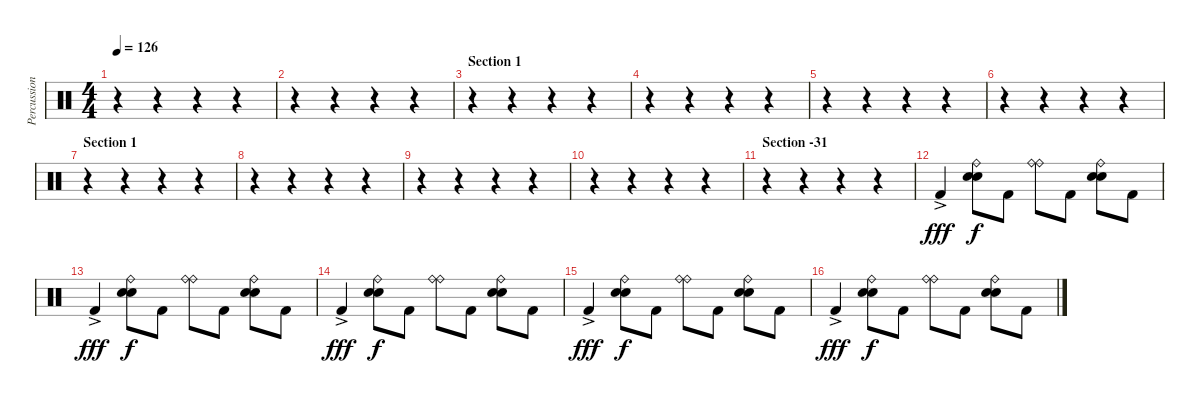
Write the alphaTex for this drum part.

\track ("Percussion" "Percussion") {instrument percussion}
\staff {score}
\articulation defaults
\ts (4 4)
\tempo 126
\clef neutral
\ks c
r.4{dy fff} r.4 r.4 r.4 |
r.4 r.4 r.4 r.4 |
\section ("" "Section 1")
r.4 r.4 r.4 r.4 |
r.4 r.4 r.4 r.4 |
r.4 r.4 r.4 r.4 |
r.4 r.4 r.4 r.4 |
\section ("" "Section 1")
r.4 r.4 r.4 r.4 |
r.4 r.4 r.4 r.4 |
r.4 r.4 r.4 r.4 |
r.4 r.4 r.4 r.4 |
\section ("" "Section -31")
r.4 r.4 r.4 r.4 |
"Kick (hit) 2"{ac}.4 ("Snare (hit) 2" "Ride (bell)" "Snare (hit) 2").8{dy f} "Kick (hit) 2".8 ("Ride (bell)" "Ride (bell)").8 "Kick (hit) 2".8 ("Snare (hit) 2" "Ride (bell)" "Snare (hit) 2").8 "Kick (hit) 2".8 |
"Kick (hit) 2"{ac}.4{dy fff} ("Snare (hit) 2" "Ride (bell)" "Snare (hit) 2").8{dy f} "Kick (hit) 2".8 ("Ride (bell)" "Ride (bell)").8 "Kick (hit) 2".8 ("Snare (hit) 2" "Ride (bell)" "Snare (hit) 2").8 "Kick (hit) 2".8 |
"Kick (hit) 2"{ac}.4{dy fff} ("Snare (hit) 2" "Ride (bell)" "Snare (hit) 2").8{dy f} "Kick (hit) 2".8 ("Ride (bell)" "Ride (bell)").8 "Kick (hit) 2".8 ("Snare (hit) 2" "Ride (bell)" "Snare (hit) 2").8 "Kick (hit) 2".8 |
"Kick (hit) 2"{ac}.4{dy fff} ("Snare (hit) 2" "Ride (bell)" "Snare (hit) 2").8{dy f} "Kick (hit) 2".8 ("Ride (bell)" "Ride (bell)").8 "Kick (hit) 2".8 ("Snare (hit) 2" "Ride (bell)" "Snare (hit) 2").8 "Kick (hit) 2".8 |
"Kick (hit) 2"{ac}.4{dy fff} ("Snare (hit) 2" "Ride (bell)" "Snare (hit) 2").8{dy f} "Kick (hit) 2".8 ("Ride (bell)" "Ride (bell)").8 "Kick (hit) 2".8 ("Snare (hit) 2" "Ride (bell)" "Snare (hit) 2").8 "Kick (hit) 2".8
